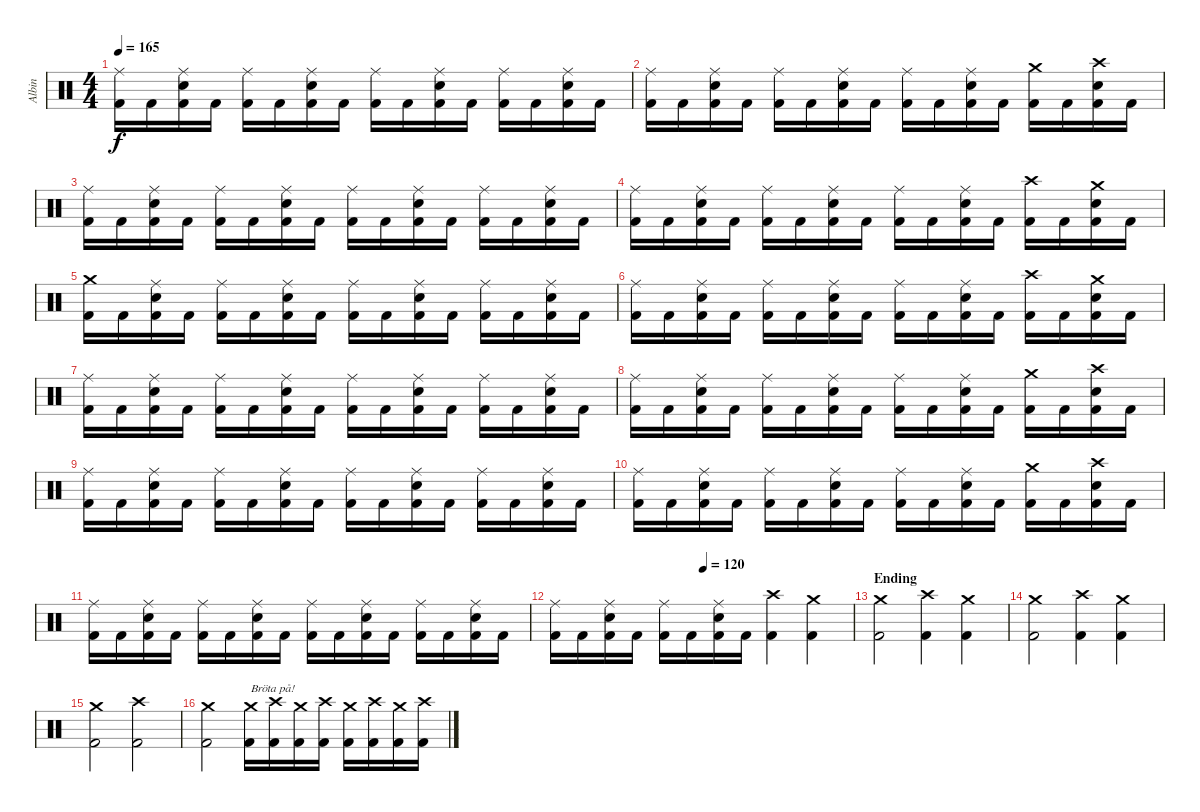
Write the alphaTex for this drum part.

\track ("Albin" "Albin") {instrument percussion}
\staff {score}
\articulation defaults
\ts (4 4)
\tempo 165
\clef neutral
\ks c
("Ride (middle)" "Kick (hit) 2").16{dy f} "Kick (hit) 2".16 ("Ride (middle)" "Electric Snare (hit)" "Kick (hit) 2").16 "Kick (hit) 2".16 ("Ride (middle)" "Kick (hit) 2").16 "Kick (hit) 2".16 ("Ride (middle)" "Electric Snare (hit)" "Kick (hit) 2").16 "Kick (hit) 2".16 ("Ride (middle)" "Kick (hit) 2").16 "Kick (hit) 2".16 ("Ride (middle)" "Electric Snare (hit)" "Kick (hit) 2").16 "Kick (hit) 2".16 ("Ride (middle)" "Kick (hit) 2").16 "Kick (hit) 2".16 ("Ride (middle)" "Electric Snare (hit)" "Kick (hit) 2").16 "Kick (hit) 2".16 |
("Ride (middle)" "Kick (hit) 2").16 "Kick (hit) 2".16 ("Ride (middle)" "Electric Snare (hit)" "Kick (hit) 2").16 "Kick (hit) 2".16 ("Ride (middle)" "Kick (hit) 2").16 "Kick (hit) 2".16 ("Ride (middle)" "Electric Snare (hit)" "Kick (hit) 2").16 "Kick (hit) 2".16 ("Ride (middle)" "Kick (hit) 2").16 "Kick (hit) 2".16 ("Ride (middle)" "Electric Snare (hit)" "Kick (hit) 2").16 "Kick (hit) 2".16 ("Crash medium (hit)" "Kick (hit) 2").16 "Kick (hit) 2".16 ("Crash high (hit)" "Electric Snare (hit)" "Kick (hit) 2").16 "Kick (hit) 2".16 |
("Ride (middle)" "Kick (hit) 2").16 "Kick (hit) 2".16 ("Ride (middle)" "Electric Snare (hit)" "Kick (hit) 2").16 "Kick (hit) 2".16 ("Ride (middle)" "Kick (hit) 2").16 "Kick (hit) 2".16 ("Ride (middle)" "Electric Snare (hit)" "Kick (hit) 2").16 "Kick (hit) 2".16 ("Ride (middle)" "Kick (hit) 2").16 "Kick (hit) 2".16 ("Ride (middle)" "Electric Snare (hit)" "Kick (hit) 2").16 "Kick (hit) 2".16 ("Ride (middle)" "Kick (hit) 2").16 "Kick (hit) 2".16 ("Ride (middle)" "Electric Snare (hit)" "Kick (hit) 2").16 "Kick (hit) 2".16 |
("Ride (middle)" "Kick (hit) 2").16 "Kick (hit) 2".16 ("Ride (middle)" "Electric Snare (hit)" "Kick (hit) 2").16 "Kick (hit) 2".16 ("Ride (middle)" "Kick (hit) 2").16 "Kick (hit) 2".16 ("Ride (middle)" "Electric Snare (hit)" "Kick (hit) 2").16 "Kick (hit) 2".16 ("Ride (middle)" "Kick (hit) 2").16 "Kick (hit) 2".16 ("Ride (middle)" "Electric Snare (hit)" "Kick (hit) 2").16 "Kick (hit) 2".16 ("Crash high (hit)" "Kick (hit) 2").16 "Kick (hit) 2".16 ("Crash medium (hit)" "Electric Snare (hit)" "Kick (hit) 2").16 "Kick (hit) 2".16 |
("Crash medium (hit)" "Kick (hit) 2").16 "Kick (hit) 2".16 ("Ride (middle)" "Electric Snare (hit)" "Kick (hit) 2").16 "Kick (hit) 2".16 ("Ride (middle)" "Kick (hit) 2").16 "Kick (hit) 2".16 ("Ride (middle)" "Electric Snare (hit)" "Kick (hit) 2").16 "Kick (hit) 2".16 ("Ride (middle)" "Kick (hit) 2").16 "Kick (hit) 2".16 ("Ride (middle)" "Electric Snare (hit)" "Kick (hit) 2").16 "Kick (hit) 2".16 ("Ride (middle)" "Kick (hit) 2").16 "Kick (hit) 2".16 ("Ride (middle)" "Electric Snare (hit)" "Kick (hit) 2").16 "Kick (hit) 2".16 |
("Ride (middle)" "Kick (hit) 2").16 "Kick (hit) 2".16 ("Ride (middle)" "Electric Snare (hit)" "Kick (hit) 2").16 "Kick (hit) 2".16 ("Ride (middle)" "Kick (hit) 2").16 "Kick (hit) 2".16 ("Ride (middle)" "Electric Snare (hit)" "Kick (hit) 2").16 "Kick (hit) 2".16 ("Ride (middle)" "Kick (hit) 2").16 "Kick (hit) 2".16 ("Ride (middle)" "Electric Snare (hit)" "Kick (hit) 2").16 "Kick (hit) 2".16 ("Crash high (hit)" "Kick (hit) 2").16 "Kick (hit) 2".16 ("Crash medium (hit)" "Electric Snare (hit)" "Kick (hit) 2").16 "Kick (hit) 2".16 |
("Ride (middle)" "Kick (hit) 2").16 "Kick (hit) 2".16 ("Ride (middle)" "Electric Snare (hit)" "Kick (hit) 2").16 "Kick (hit) 2".16 ("Ride (middle)" "Kick (hit) 2").16 "Kick (hit) 2".16 ("Ride (middle)" "Electric Snare (hit)" "Kick (hit) 2").16 "Kick (hit) 2".16 ("Ride (middle)" "Kick (hit) 2").16 "Kick (hit) 2".16 ("Ride (middle)" "Electric Snare (hit)" "Kick (hit) 2").16 "Kick (hit) 2".16 ("Ride (middle)" "Kick (hit) 2").16 "Kick (hit) 2".16 ("Ride (middle)" "Electric Snare (hit)" "Kick (hit) 2").16 "Kick (hit) 2".16 |
("Ride (middle)" "Kick (hit) 2").16 "Kick (hit) 2".16 ("Ride (middle)" "Electric Snare (hit)" "Kick (hit) 2").16 "Kick (hit) 2".16 ("Ride (middle)" "Kick (hit) 2").16 "Kick (hit) 2".16 ("Ride (middle)" "Electric Snare (hit)" "Kick (hit) 2").16 "Kick (hit) 2".16 ("Ride (middle)" "Kick (hit) 2").16 "Kick (hit) 2".16 ("Ride (middle)" "Electric Snare (hit)" "Kick (hit) 2").16 "Kick (hit) 2".16 ("Crash medium (hit)" "Kick (hit) 2").16 "Kick (hit) 2".16 ("Crash high (hit)" "Electric Snare (hit)" "Kick (hit) 2").16 "Kick (hit) 2".16 |
("Ride (middle)" "Kick (hit) 2").16 "Kick (hit) 2".16 ("Ride (middle)" "Electric Snare (hit)" "Kick (hit) 2").16 "Kick (hit) 2".16 ("Ride (middle)" "Kick (hit) 2").16 "Kick (hit) 2".16 ("Ride (middle)" "Electric Snare (hit)" "Kick (hit) 2").16 "Kick (hit) 2".16 ("Ride (middle)" "Kick (hit) 2").16 "Kick (hit) 2".16 ("Ride (middle)" "Electric Snare (hit)" "Kick (hit) 2").16 "Kick (hit) 2".16 ("Ride (middle)" "Kick (hit) 2").16 "Kick (hit) 2".16 ("Ride (middle)" "Electric Snare (hit)" "Kick (hit) 2").16 "Kick (hit) 2".16 |
("Ride (middle)" "Kick (hit) 2").16 "Kick (hit) 2".16 ("Ride (middle)" "Electric Snare (hit)" "Kick (hit) 2").16 "Kick (hit) 2".16 ("Ride (middle)" "Kick (hit) 2").16 "Kick (hit) 2".16 ("Ride (middle)" "Electric Snare (hit)" "Kick (hit) 2").16 "Kick (hit) 2".16 ("Ride (middle)" "Kick (hit) 2").16 "Kick (hit) 2".16 ("Ride (middle)" "Electric Snare (hit)" "Kick (hit) 2").16 "Kick (hit) 2".16 ("Crash medium (hit)" "Kick (hit) 2").16 "Kick (hit) 2".16 ("Crash high (hit)" "Electric Snare (hit)" "Kick (hit) 2").16 "Kick (hit) 2".16 |
("Ride (middle)" "Kick (hit) 2").16 "Kick (hit) 2".16 ("Ride (middle)" "Electric Snare (hit)" "Kick (hit) 2").16 "Kick (hit) 2".16 ("Ride (middle)" "Kick (hit) 2").16 "Kick (hit) 2".16 ("Ride (middle)" "Electric Snare (hit)" "Kick (hit) 2").16 "Kick (hit) 2".16 ("Ride (middle)" "Kick (hit) 2").16 "Kick (hit) 2".16 ("Ride (middle)" "Electric Snare (hit)" "Kick (hit) 2").16 "Kick (hit) 2".16 ("Ride (middle)" "Kick (hit) 2").16 "Kick (hit) 2".16 ("Ride (middle)" "Electric Snare (hit)" "Kick (hit) 2").16 "Kick (hit) 2".16 |
\tempo (120 0.5)
("Ride (middle)" "Kick (hit) 2").16 "Kick (hit) 2".16 ("Ride (middle)" "Electric Snare (hit)" "Kick (hit) 2").16 "Kick (hit) 2".16 ("Ride (middle)" "Kick (hit) 2").16 "Kick (hit) 2".16 ("Ride (middle)" "Electric Snare (hit)" "Kick (hit) 2").16 "Kick (hit) 2".16 ("Crash high (hit)" "Kick (hit) 2").4 ("Crash medium (hit)" "Kick (hit) 2").4 |
\section ("" "Ending")
("Crash medium (hit)" "Kick (hit) 2").2 ("Crash high (hit)" "Kick (hit) 2").4 ("Crash medium (hit)" "Kick (hit) 2").4 |
("Crash medium (hit)" "Kick (hit) 2").2 ("Crash high (hit)" "Kick (hit) 2").4 ("Crash medium (hit)" "Kick (hit) 2").4 |
("Crash medium (hit)" "Kick (hit) 2").2 ("Crash high (hit)" "Kick (hit) 2").2 |
("Crash medium (hit)" "Kick (hit) 2").2 ("Crash medium (hit)" "Kick (hit) 2").16{txt "Bröta på!"} ("Crash high (hit)" "Kick (hit) 2").16 ("Crash medium (hit)" "Kick (hit) 2").16 ("Crash high (hit)" "Kick (hit) 2").16 ("Crash medium (hit)" "Kick (hit) 2").16 ("Crash high (hit)" "Kick (hit) 2").16 ("Crash medium (hit)" "Kick (hit) 2").16 ("Crash high (hit)" "Kick (hit) 2").16
